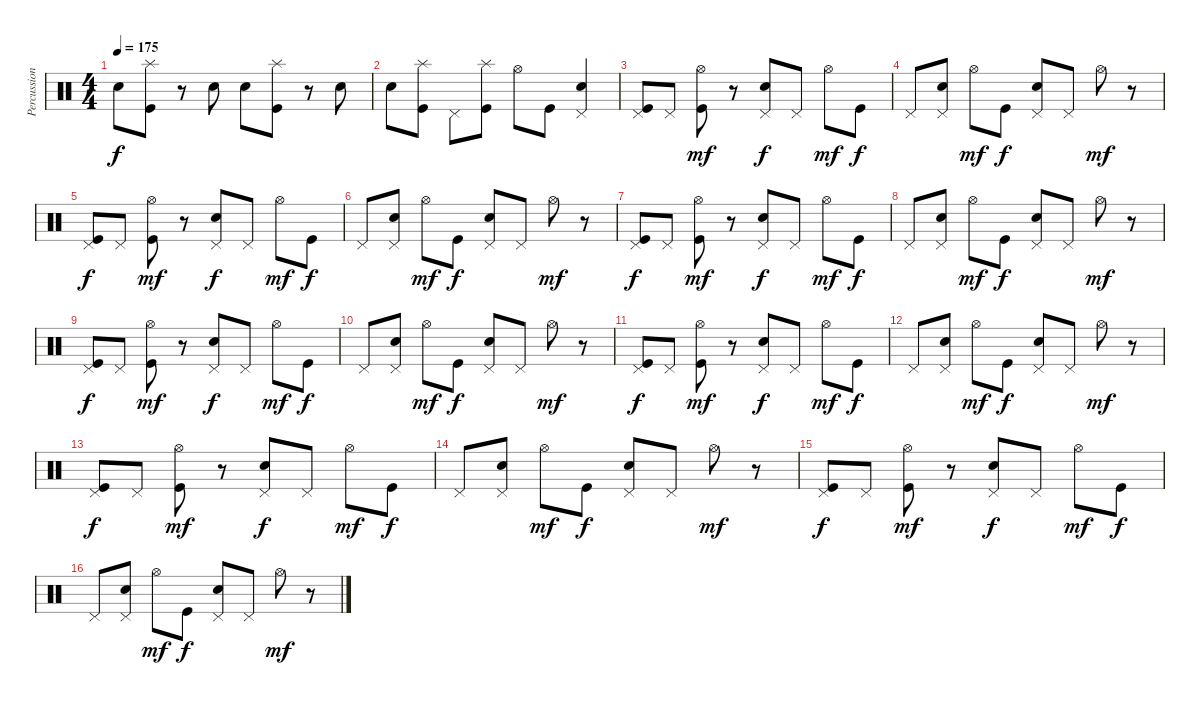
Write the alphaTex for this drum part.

\track ("Percussions" "Percussion") {instrument percussion}
\staff {score}
\articulation defaults
\ts (4 4)
\tempo 175
\clef neutral
\ks c "Snare (hit) 2".8{dy f}
("Splash (hit)" "Kick (hit)").8 r.8 "Snare (hit) 2".8 "Snare (hit) 2".8 ("Splash (hit)" "Kick (hit)").8 r.8 "Snare (hit) 2".8 |
"Snare (hit) 2".8 ("Splash (hit)" "Kick (hit)").8 "Pedal Hi-Hat (hit)".8 ("Splash (hit)" "Kick (hit)").8 "Hi-Hat (open)".8 "Kick (hit)".8 ("Pedal Hi-Hat (hit)" "Snare (hit) 2").4 |
("Pedal Hi-Hat (hit)" "Kick (hit)").8 "Pedal Hi-Hat (hit)".8 ("Hi-Hat (open)" "Kick (hit)").8{dy mf} r.8 ("Pedal Hi-Hat (hit)" "Snare (hit) 2").8{dy f} "Pedal Hi-Hat (hit)".8 "Hi-Hat (open)".8{dy mf} "Kick (hit)".8{dy f} |
"Pedal Hi-Hat (hit)".8 ("Pedal Hi-Hat (hit)" "Snare (hit) 2").8 "Hi-Hat (open)".8{dy mf} "Kick (hit)".8{dy f} ("Pedal Hi-Hat (hit)" "Snare (hit) 2").8 "Pedal Hi-Hat (hit)".8 "Hi-Hat (open)".8{dy mf} r.8 |
("Pedal Hi-Hat (hit)" "Kick (hit)").8{dy f} "Pedal Hi-Hat (hit)".8 ("Hi-Hat (open)" "Kick (hit)").8{dy mf} r.8 ("Pedal Hi-Hat (hit)" "Snare (hit) 2").8{dy f} "Pedal Hi-Hat (hit)".8 "Hi-Hat (open)".8{dy mf} "Kick (hit)".8{dy f} |
"Pedal Hi-Hat (hit)".8 ("Pedal Hi-Hat (hit)" "Snare (hit) 2").8 "Hi-Hat (open)".8{dy mf} "Kick (hit)".8{dy f} ("Pedal Hi-Hat (hit)" "Snare (hit) 2").8 "Pedal Hi-Hat (hit)".8 "Hi-Hat (open)".8{dy mf} r.8 |
("Pedal Hi-Hat (hit)" "Kick (hit)").8{dy f} "Pedal Hi-Hat (hit)".8 ("Hi-Hat (open)" "Kick (hit)").8{dy mf} r.8 ("Pedal Hi-Hat (hit)" "Snare (hit) 2").8{dy f} "Pedal Hi-Hat (hit)".8 "Hi-Hat (open)".8{dy mf} "Kick (hit)".8{dy f} |
"Pedal Hi-Hat (hit)".8 ("Pedal Hi-Hat (hit)" "Snare (hit) 2").8 "Hi-Hat (open)".8{dy mf} "Kick (hit)".8{dy f} ("Pedal Hi-Hat (hit)" "Snare (hit) 2").8 "Pedal Hi-Hat (hit)".8 "Hi-Hat (open)".8{dy mf} r.8 |
("Pedal Hi-Hat (hit)" "Kick (hit)").8{dy f} "Pedal Hi-Hat (hit)".8 ("Hi-Hat (open)" "Kick (hit)").8{dy mf} r.8 ("Pedal Hi-Hat (hit)" "Snare (hit) 2").8{dy f} "Pedal Hi-Hat (hit)".8 "Hi-Hat (open)".8{dy mf} "Kick (hit)".8{dy f} |
"Pedal Hi-Hat (hit)".8 ("Pedal Hi-Hat (hit)" "Snare (hit) 2").8 "Hi-Hat (open)".8{dy mf} "Kick (hit)".8{dy f} ("Pedal Hi-Hat (hit)" "Snare (hit) 2").8 "Pedal Hi-Hat (hit)".8 "Hi-Hat (open)".8{dy mf} r.8 |
("Pedal Hi-Hat (hit)" "Kick (hit)").8{dy f} "Pedal Hi-Hat (hit)".8 ("Hi-Hat (open)" "Kick (hit)").8{dy mf} r.8 ("Pedal Hi-Hat (hit)" "Snare (hit) 2").8{dy f} "Pedal Hi-Hat (hit)".8 "Hi-Hat (open)".8{dy mf} "Kick (hit)".8{dy f} |
"Pedal Hi-Hat (hit)".8 ("Pedal Hi-Hat (hit)" "Snare (hit) 2").8 "Hi-Hat (open)".8{dy mf} "Kick (hit)".8{dy f} ("Pedal Hi-Hat (hit)" "Snare (hit) 2").8 "Pedal Hi-Hat (hit)".8 "Hi-Hat (open)".8{dy mf} r.8 |
("Pedal Hi-Hat (hit)" "Kick (hit)").8{dy f} "Pedal Hi-Hat (hit)".8 ("Hi-Hat (open)" "Kick (hit)").8{dy mf} r.8 ("Pedal Hi-Hat (hit)" "Snare (hit) 2").8{dy f} "Pedal Hi-Hat (hit)".8 "Hi-Hat (open)".8{dy mf} "Kick (hit)".8{dy f} |
"Pedal Hi-Hat (hit)".8 ("Pedal Hi-Hat (hit)" "Snare (hit) 2").8 "Hi-Hat (open)".8{dy mf} "Kick (hit)".8{dy f} ("Pedal Hi-Hat (hit)" "Snare (hit) 2").8 "Pedal Hi-Hat (hit)".8 "Hi-Hat (open)".8{dy mf} r.8 |
("Pedal Hi-Hat (hit)" "Kick (hit)").8{dy f} "Pedal Hi-Hat (hit)".8 ("Hi-Hat (open)" "Kick (hit)").8{dy mf} r.8 ("Pedal Hi-Hat (hit)" "Snare (hit) 2").8{dy f} "Pedal Hi-Hat (hit)".8 "Hi-Hat (open)".8{dy mf} "Kick (hit)".8{dy f} |
"Pedal Hi-Hat (hit)".8 ("Pedal Hi-Hat (hit)" "Snare (hit) 2").8 "Hi-Hat (open)".8{dy mf} "Kick (hit)".8{dy f} ("Pedal Hi-Hat (hit)" "Snare (hit) 2").8 "Pedal Hi-Hat (hit)".8 "Hi-Hat (open)".8{dy mf} r.8
